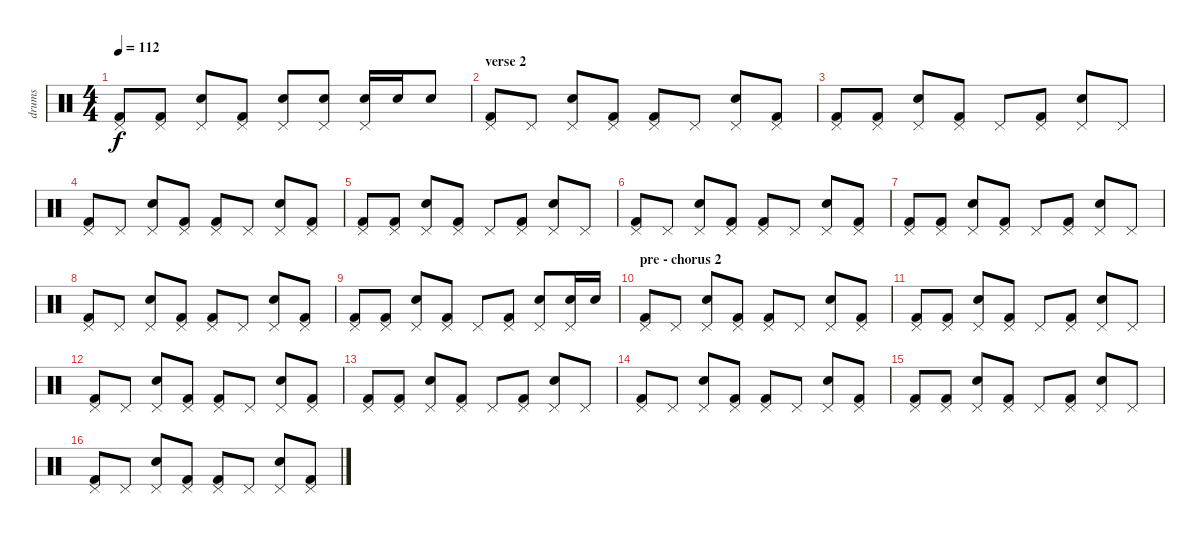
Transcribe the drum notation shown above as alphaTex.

\track ("drums" "drums") {instrument percussion}
\staff {score}
\articulation defaults
\ts (4 4)
\tempo 112
\clef neutral
\ks c
("Kick (hit) 2" "Pedal Hi-Hat (hit)").8{dy f} ("Kick (hit) 2" "Pedal Hi-Hat (hit)").8 ("Snare (hit) 2" "Pedal Hi-Hat (hit)").8 ("Kick (hit) 2" "Pedal Hi-Hat (hit)").8 ("Snare (hit) 2" "Pedal Hi-Hat (hit)").8 ("Snare (hit) 2" "Pedal Hi-Hat (hit)").8 ("Snare (hit) 2" "Pedal Hi-Hat (hit)").16 "Snare (hit) 2".16 "Snare (hit) 2".8 |
\section ("" "verse 2")
("Kick (hit) 2" "Pedal Hi-Hat (hit)").8 "Pedal Hi-Hat (hit)".8 ("Snare (hit) 2" "Pedal Hi-Hat (hit)").8 ("Kick (hit) 2" "Pedal Hi-Hat (hit)").8 ("Kick (hit) 2" "Pedal Hi-Hat (hit)").8 "Pedal Hi-Hat (hit)".8 ("Snare (hit) 2" "Pedal Hi-Hat (hit)").8 ("Kick (hit) 2" "Pedal Hi-Hat (hit)").8 |
("Kick (hit) 2" "Pedal Hi-Hat (hit)").8 ("Kick (hit) 2" "Pedal Hi-Hat (hit)").8 ("Snare (hit) 2" "Pedal Hi-Hat (hit)").8 ("Kick (hit) 2" "Pedal Hi-Hat (hit)").8 "Pedal Hi-Hat (hit)".8 ("Kick (hit) 2" "Pedal Hi-Hat (hit)").8 ("Snare (hit) 2" "Pedal Hi-Hat (hit)").8 "Pedal Hi-Hat (hit)".8 |
("Kick (hit) 2" "Pedal Hi-Hat (hit)").8 "Pedal Hi-Hat (hit)".8 ("Snare (hit) 2" "Pedal Hi-Hat (hit)").8 ("Kick (hit) 2" "Pedal Hi-Hat (hit)").8 ("Kick (hit) 2" "Pedal Hi-Hat (hit)").8 "Pedal Hi-Hat (hit)".8 ("Snare (hit) 2" "Pedal Hi-Hat (hit)").8 ("Kick (hit) 2" "Pedal Hi-Hat (hit)").8 |
("Kick (hit) 2" "Pedal Hi-Hat (hit)").8 ("Kick (hit) 2" "Pedal Hi-Hat (hit)").8 ("Snare (hit) 2" "Pedal Hi-Hat (hit)").8 ("Kick (hit) 2" "Pedal Hi-Hat (hit)").8 "Pedal Hi-Hat (hit)".8 ("Kick (hit) 2" "Pedal Hi-Hat (hit)").8 ("Snare (hit) 2" "Pedal Hi-Hat (hit)").8 "Pedal Hi-Hat (hit)".8 |
("Kick (hit) 2" "Pedal Hi-Hat (hit)").8 "Pedal Hi-Hat (hit)".8 ("Snare (hit) 2" "Pedal Hi-Hat (hit)").8 ("Kick (hit) 2" "Pedal Hi-Hat (hit)").8 ("Kick (hit) 2" "Pedal Hi-Hat (hit)").8 "Pedal Hi-Hat (hit)".8 ("Snare (hit) 2" "Pedal Hi-Hat (hit)").8 ("Kick (hit) 2" "Pedal Hi-Hat (hit)").8 |
("Kick (hit) 2" "Pedal Hi-Hat (hit)").8 ("Kick (hit) 2" "Pedal Hi-Hat (hit)").8 ("Snare (hit) 2" "Pedal Hi-Hat (hit)").8 ("Kick (hit) 2" "Pedal Hi-Hat (hit)").8 "Pedal Hi-Hat (hit)".8 ("Kick (hit) 2" "Pedal Hi-Hat (hit)").8 ("Snare (hit) 2" "Pedal Hi-Hat (hit)").8 "Pedal Hi-Hat (hit)".8 |
("Kick (hit) 2" "Pedal Hi-Hat (hit)").8 "Pedal Hi-Hat (hit)".8 ("Snare (hit) 2" "Pedal Hi-Hat (hit)").8 ("Kick (hit) 2" "Pedal Hi-Hat (hit)").8 ("Kick (hit) 2" "Pedal Hi-Hat (hit)").8 "Pedal Hi-Hat (hit)".8 ("Snare (hit) 2" "Pedal Hi-Hat (hit)").8 ("Kick (hit) 2" "Pedal Hi-Hat (hit)").8 |
("Kick (hit) 2" "Pedal Hi-Hat (hit)").8 ("Kick (hit) 2" "Pedal Hi-Hat (hit)").8 ("Snare (hit) 2" "Pedal Hi-Hat (hit)").8 ("Kick (hit) 2" "Pedal Hi-Hat (hit)").8 "Pedal Hi-Hat (hit)".8 ("Kick (hit) 2" "Pedal Hi-Hat (hit)").8 ("Snare (hit) 2" "Pedal Hi-Hat (hit)").8 ("Snare (hit) 2" "Pedal Hi-Hat (hit)").16 "Snare (hit) 2".16 |
\section ("" "pre - chorus 2")
("Kick (hit) 2" "Pedal Hi-Hat (hit)").8 "Pedal Hi-Hat (hit)".8 ("Snare (hit) 2" "Pedal Hi-Hat (hit)").8 ("Kick (hit) 2" "Pedal Hi-Hat (hit)").8 ("Kick (hit) 2" "Pedal Hi-Hat (hit)").8 "Pedal Hi-Hat (hit)".8 ("Snare (hit) 2" "Pedal Hi-Hat (hit)").8 ("Kick (hit) 2" "Pedal Hi-Hat (hit)").8 |
("Kick (hit) 2" "Pedal Hi-Hat (hit)").8 ("Kick (hit) 2" "Pedal Hi-Hat (hit)").8 ("Snare (hit) 2" "Pedal Hi-Hat (hit)").8 ("Kick (hit) 2" "Pedal Hi-Hat (hit)").8 "Pedal Hi-Hat (hit)".8 ("Kick (hit) 2" "Pedal Hi-Hat (hit)").8 ("Snare (hit) 2" "Pedal Hi-Hat (hit)").8 "Pedal Hi-Hat (hit)".8 |
("Kick (hit) 2" "Pedal Hi-Hat (hit)").8 "Pedal Hi-Hat (hit)".8 ("Snare (hit) 2" "Pedal Hi-Hat (hit)").8 ("Kick (hit) 2" "Pedal Hi-Hat (hit)").8 ("Kick (hit) 2" "Pedal Hi-Hat (hit)").8 "Pedal Hi-Hat (hit)".8 ("Snare (hit) 2" "Pedal Hi-Hat (hit)").8 ("Kick (hit) 2" "Pedal Hi-Hat (hit)").8 |
("Kick (hit) 2" "Pedal Hi-Hat (hit)").8 ("Kick (hit) 2" "Pedal Hi-Hat (hit)").8 ("Snare (hit) 2" "Pedal Hi-Hat (hit)").8 ("Kick (hit) 2" "Pedal Hi-Hat (hit)").8 "Pedal Hi-Hat (hit)".8 ("Kick (hit) 2" "Pedal Hi-Hat (hit)").8 ("Snare (hit) 2" "Pedal Hi-Hat (hit)").8 "Pedal Hi-Hat (hit)".8 |
("Kick (hit) 2" "Pedal Hi-Hat (hit)").8 "Pedal Hi-Hat (hit)".8 ("Snare (hit) 2" "Pedal Hi-Hat (hit)").8 ("Kick (hit) 2" "Pedal Hi-Hat (hit)").8 ("Kick (hit) 2" "Pedal Hi-Hat (hit)").8 "Pedal Hi-Hat (hit)".8 ("Snare (hit) 2" "Pedal Hi-Hat (hit)").8 ("Kick (hit) 2" "Pedal Hi-Hat (hit)").8 |
("Kick (hit) 2" "Pedal Hi-Hat (hit)").8 ("Kick (hit) 2" "Pedal Hi-Hat (hit)").8 ("Snare (hit) 2" "Pedal Hi-Hat (hit)").8 ("Kick (hit) 2" "Pedal Hi-Hat (hit)").8 "Pedal Hi-Hat (hit)".8 ("Kick (hit) 2" "Pedal Hi-Hat (hit)").8 ("Snare (hit) 2" "Pedal Hi-Hat (hit)").8 "Pedal Hi-Hat (hit)".8 |
("Kick (hit) 2" "Pedal Hi-Hat (hit)").8 "Pedal Hi-Hat (hit)".8 ("Snare (hit) 2" "Pedal Hi-Hat (hit)").8 ("Kick (hit) 2" "Pedal Hi-Hat (hit)").8 ("Kick (hit) 2" "Pedal Hi-Hat (hit)").8 "Pedal Hi-Hat (hit)".8 ("Snare (hit) 2" "Pedal Hi-Hat (hit)").8 ("Kick (hit) 2" "Pedal Hi-Hat (hit)").8
